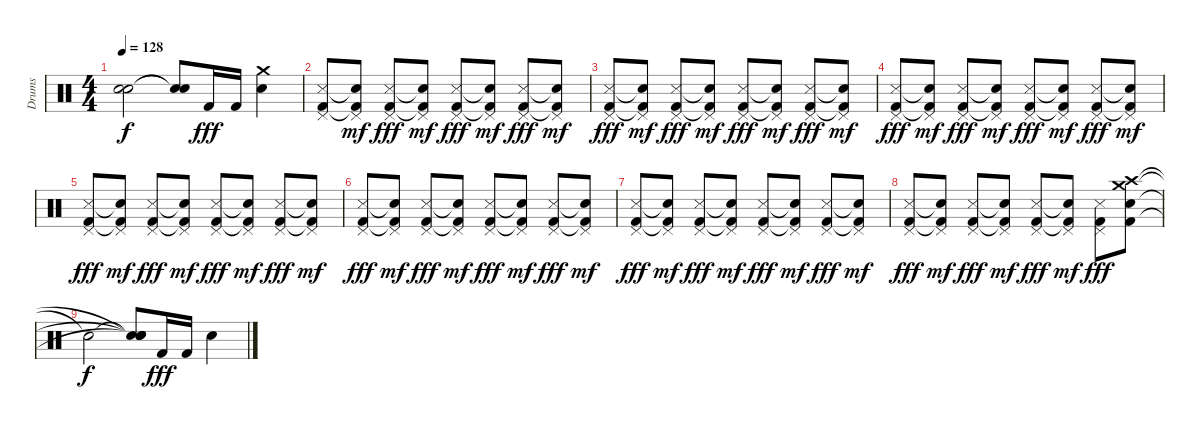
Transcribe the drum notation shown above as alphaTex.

\track ("Drums" "Drums") {instrument percussion}
\staff {score}
\articulation defaults
\ts (4 4)
\tempo 128
\clef neutral
\ks c
("Snare (hit)"{t} "Snare (hit)"{t}).2{dy f} ("Snare (hit)"{t} "Snare (hit)"{t}).8 "Kick (hit) 2".16{dy fff} "Kick (hit) 2".16 ("Crash medium (hit)" "Electric Snare (hit)").4 |
("Pedal Hi-Hat (hit)" "Snare (side stick) 3" "Kick (hit) 2").8 ("Pedal Hi-Hat (hit)" "Snare (hit)"{t} "Kick (hit) 2"{t}).8{dy mf} ("Pedal Hi-Hat (hit)" "Snare (side stick) 3" "Kick (hit) 2").8{dy fff} ("Pedal Hi-Hat (hit)" "Snare (hit)"{t} "Kick (hit) 2"{t}).8{dy mf} ("Pedal Hi-Hat (hit)" "Snare (side stick) 3" "Kick (hit) 2").8{dy fff} ("Pedal Hi-Hat (hit)" "Snare (hit)"{t} "Kick (hit) 2"{t}).8{dy mf} ("Pedal Hi-Hat (hit)" "Snare (side stick) 3" "Kick (hit) 2").8{dy fff} ("Pedal Hi-Hat (hit)" "Snare (hit)"{t} "Kick (hit) 2"{t}).8{dy mf} |
("Pedal Hi-Hat (hit)" "Snare (side stick) 3" "Kick (hit) 2").8{dy fff} ("Pedal Hi-Hat (hit)" "Snare (hit)"{t} "Kick (hit) 2"{t}).8{dy mf} ("Pedal Hi-Hat (hit)" "Snare (side stick) 3" "Kick (hit) 2").8{dy fff} ("Pedal Hi-Hat (hit)" "Snare (hit)"{t} "Kick (hit) 2"{t}).8{dy mf} ("Pedal Hi-Hat (hit)" "Snare (side stick) 3" "Kick (hit) 2").8{dy fff} ("Pedal Hi-Hat (hit)" "Snare (hit)"{t} "Kick (hit) 2"{t}).8{dy mf} ("Pedal Hi-Hat (hit)" "Snare (side stick) 3" "Kick (hit) 2").8{dy fff} ("Pedal Hi-Hat (hit)" "Snare (hit)"{t} "Kick (hit) 2"{t}).8{dy mf} |
("Pedal Hi-Hat (hit)" "Snare (side stick) 3" "Kick (hit) 2").8{dy fff} ("Pedal Hi-Hat (hit)" "Snare (hit)"{t} "Kick (hit) 2"{t}).8{dy mf} ("Pedal Hi-Hat (hit)" "Snare (side stick) 3" "Kick (hit) 2").8{dy fff} ("Pedal Hi-Hat (hit)" "Snare (hit)"{t} "Kick (hit) 2"{t}).8{dy mf} ("Pedal Hi-Hat (hit)" "Snare (side stick) 3" "Kick (hit) 2").8{dy fff} ("Pedal Hi-Hat (hit)" "Snare (hit)"{t} "Kick (hit) 2"{t}).8{dy mf} ("Pedal Hi-Hat (hit)" "Snare (side stick) 3" "Kick (hit) 2").8{dy fff} ("Pedal Hi-Hat (hit)" "Snare (hit)"{t} "Kick (hit) 2"{t}).8{dy mf} |
("Pedal Hi-Hat (hit)" "Snare (side stick) 3" "Kick (hit) 2").8{dy fff} ("Pedal Hi-Hat (hit)" "Snare (hit)"{t} "Kick (hit) 2"{t}).8{dy mf} ("Pedal Hi-Hat (hit)" "Snare (side stick) 3" "Kick (hit) 2").8{dy fff} ("Pedal Hi-Hat (hit)" "Snare (hit)"{t} "Kick (hit) 2"{t}).8{dy mf} ("Pedal Hi-Hat (hit)" "Snare (side stick) 3" "Kick (hit) 2").8{dy fff} ("Pedal Hi-Hat (hit)" "Snare (hit)"{t} "Kick (hit) 2"{t}).8{dy mf} ("Pedal Hi-Hat (hit)" "Snare (side stick) 3" "Kick (hit) 2").8{dy fff} ("Pedal Hi-Hat (hit)" "Snare (hit)"{t} "Kick (hit) 2"{t}).8{dy mf} |
("Pedal Hi-Hat (hit)" "Snare (side stick) 3" "Kick (hit) 2").8{dy fff} ("Pedal Hi-Hat (hit)" "Snare (hit)"{t} "Kick (hit) 2"{t}).8{dy mf} ("Pedal Hi-Hat (hit)" "Snare (side stick) 3" "Kick (hit) 2").8{dy fff} ("Pedal Hi-Hat (hit)" "Snare (hit)"{t} "Kick (hit) 2"{t}).8{dy mf} ("Pedal Hi-Hat (hit)" "Snare (side stick) 3" "Kick (hit) 2").8{dy fff} ("Pedal Hi-Hat (hit)" "Snare (hit)"{t} "Kick (hit) 2"{t}).8{dy mf} ("Pedal Hi-Hat (hit)" "Snare (side stick) 3" "Kick (hit) 2").8{dy fff} ("Pedal Hi-Hat (hit)" "Snare (hit)"{t} "Kick (hit) 2"{t}).8{dy mf} |
("Pedal Hi-Hat (hit)" "Snare (side stick) 3" "Kick (hit) 2").8{dy fff} ("Pedal Hi-Hat (hit)" "Snare (hit)"{t} "Kick (hit) 2"{t}).8{dy mf} ("Pedal Hi-Hat (hit)" "Snare (side stick) 3" "Kick (hit) 2").8{dy fff} ("Pedal Hi-Hat (hit)" "Snare (hit)"{t} "Kick (hit) 2"{t}).8{dy mf} ("Pedal Hi-Hat (hit)" "Snare (side stick) 3" "Kick (hit) 2").8{dy fff} ("Pedal Hi-Hat (hit)" "Snare (hit)"{t} "Kick (hit) 2"{t}).8{dy mf} ("Pedal Hi-Hat (hit)" "Snare (side stick) 3" "Kick (hit) 2").8{dy fff} ("Pedal Hi-Hat (hit)" "Snare (hit)"{t} "Kick (hit) 2"{t}).8{dy mf} |
("Pedal Hi-Hat (hit)" "Snare (side stick) 3" "Kick (hit) 2").8{dy fff} ("Pedal Hi-Hat (hit)" "Snare (hit)"{t} "Kick (hit) 2"{t}).8{dy mf} ("Pedal Hi-Hat (hit)" "Snare (side stick) 3" "Kick (hit) 2").8{dy fff} ("Pedal Hi-Hat (hit)" "Snare (hit)"{t} "Kick (hit) 2"{t}).8{dy mf} ("Pedal Hi-Hat (hit)" "Snare (side stick) 3" "Kick (hit) 2").8{dy fff} ("Pedal Hi-Hat (hit)" "Snare (hit)"{t} "Kick (hit) 2"{t}).8{dy mf} ("Pedal Hi-Hat (hit)" "Snare (side stick) 3" "Kick (hit) 2").8{dy fff} ("Crash medium (hit)" "Crash high (hit)" "Electric Snare (hit)" "Kick (hit) 2").8 |
"Snare (hit)"{t}.2{dy f} ("Snare (hit)"{t} "Snare (hit)"{t} "Snare (hit)"{t} "Snare (hit)"{t}).8 "Kick (hit) 2".16{dy fff} "Kick (hit) 2".16 "Electric Snare (hit)".4
